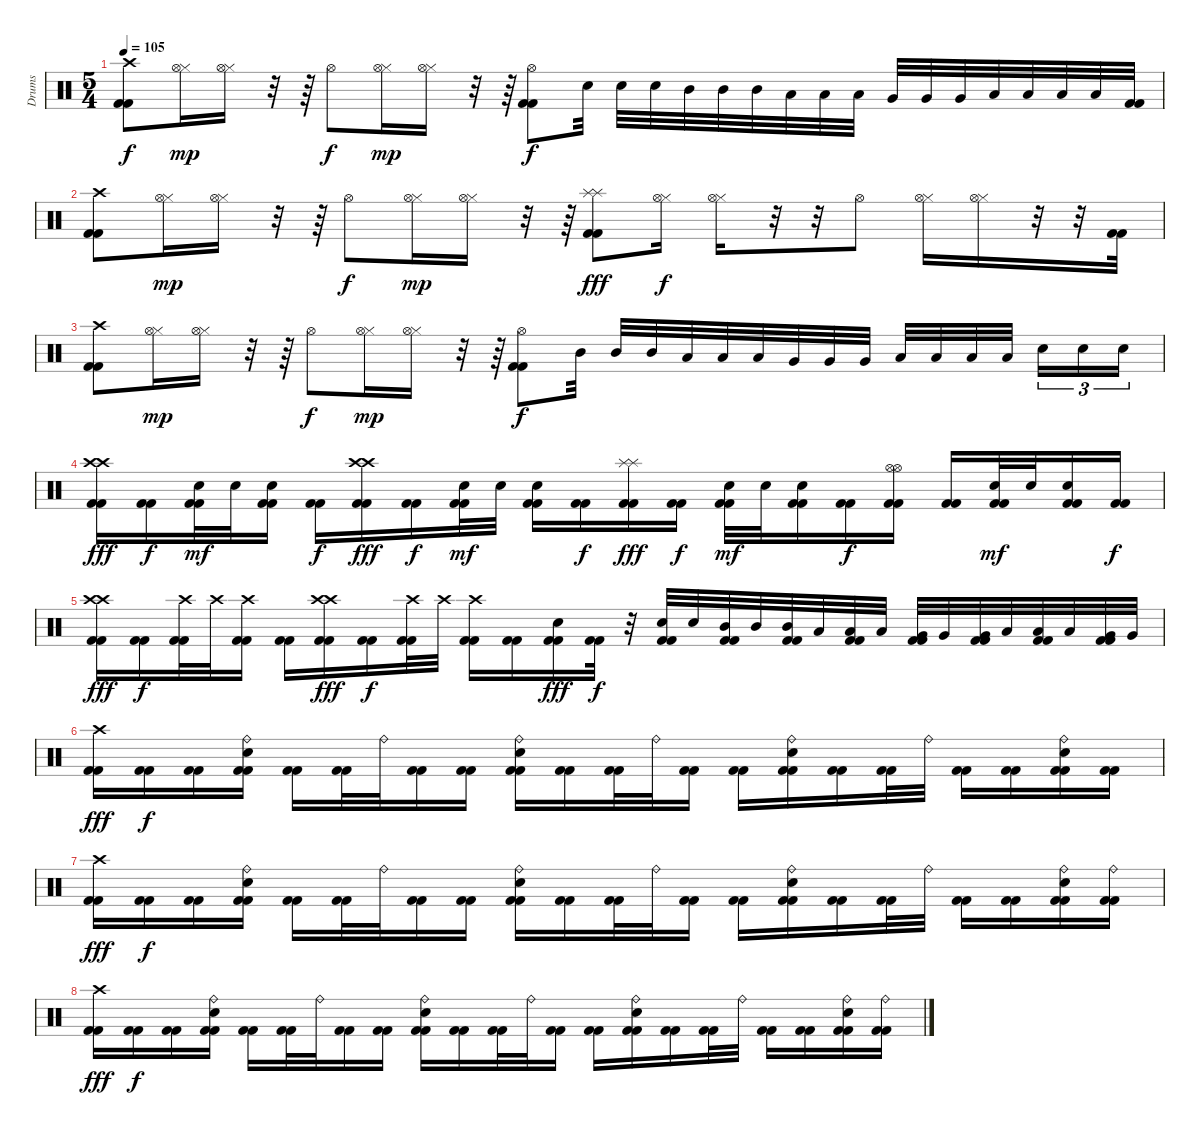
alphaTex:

\track ("Drums" "Drums") {instrument percussion}
\staff {score}
\articulation defaults
\ts (5 4)
\tempo 105
\clef neutral
\ks c
("Crash high (hit)" "Kick (hit) 2" "Kick (hit) 2").8{dy f} ("Hi-Hat (closed)" "Hi-Hat (open)").16{dy mp} ("Hi-Hat (closed)" "Hi-Hat (open)").16 r.32 r.64 "Hi-Hat (open)".8{dy f} ("Hi-Hat (closed)" "Hi-Hat (open)").16{dy mp} ("Hi-Hat (closed)" "Hi-Hat (open)").16 r.32 r.64 ("Hi-Hat (open)" "Kick (hit) 2" "Kick (hit) 2").8{dy f} "Electric Snare (hit)".32 "Electric Snare (hit)".32 "Electric Snare (hit)".32 "Mid Tom (hit)".32 "Mid Tom (hit)".32 "Mid Tom (hit)".32 "Low Tom (hit)".32 "Low Tom (hit)".32 "Low Tom (hit)".32 "Very Low Tom (hit)".32 "Very Low Tom (hit)".32 "Very Low Tom (hit)".32 "Low Floor Tom (hit)".32 "Low Floor Tom (hit)".32 "Low Floor Tom (hit)".32 "Low Tom (hit)".32 ("Kick (hit) 2" "Kick (hit) 2").32 |
("Crash high (hit)" "Kick (hit) 2" "Kick (hit) 2").8 ("Hi-Hat (closed)" "Hi-Hat (open)").16{dy mp} ("Hi-Hat (closed)" "Hi-Hat (open)").16 r.32 r.64 "Hi-Hat (open)".8{dy f} ("Hi-Hat (closed)" "Hi-Hat (open)").16{dy mp} ("Hi-Hat (closed)" "Hi-Hat (open)").16 r.32 r.64 ("Splash (hit)" "Splash (hit)" "Kick (hit) 2" "Kick (hit) 2").8{dy fff} ("Hi-Hat (closed)" "Hi-Hat (open)").16{dy f} ("Hi-Hat (closed)" "Hi-Hat (open)").16 r.32 r.32 "Hi-Hat (open)".8 ("Hi-Hat (closed)" "Hi-Hat (open)").16 ("Hi-Hat (closed)" "Hi-Hat (open)").16 r.32 r.32 ("Kick (hit) 2" "Kick (hit) 2").32 |
("Crash high (hit)" "Kick (hit) 2" "Kick (hit) 2").8 ("Hi-Hat (closed)" "Hi-Hat (open)").16{dy mp} ("Hi-Hat (closed)" "Hi-Hat (open)").16 r.32 r.64 "Hi-Hat (open)".8{dy f} ("Hi-Hat (closed)" "Hi-Hat (open)").16{dy mp} ("Hi-Hat (closed)" "Hi-Hat (open)").16 r.32 r.64 ("Hi-Hat (open)" "Kick (hit) 2" "Kick (hit) 2").8{dy f} "Mid Tom (hit)".32 "Mid Tom (hit)".32 "Mid Tom (hit)".32 "Low Tom (hit)".32 "Low Tom (hit)".32 "Low Tom (hit)".32 "Very Low Tom (hit)".32 "Very Low Tom (hit)".32 "Very Low Tom (hit)".32 "Low Floor Tom (hit)".32 "Low Floor Tom (hit)".32 "Low Floor Tom (hit)".32 "Low Tom (hit)".32 "Electric Snare (hit)".16{tu (3 2)} "Electric Snare (hit)".16{tu (3 2)} "Electric Snare (hit)".16{tu (3 2)} |
("Crash high (hit)" "Crash high (hit)" "Kick (hit) 2" "Kick (hit) 2").16{dy fff} ("Kick (hit) 2" "Kick (hit) 2").16{dy f} ("Electric Snare (hit)" "Kick (hit) 2" "Kick (hit) 2").32{dy mf} "Electric Snare (hit)".32 ("Electric Snare (hit)" "Kick (hit) 2" "Kick (hit) 2").16 ("Kick (hit) 2" "Kick (hit) 2").16{dy f} ("Crash high (hit)" "Crash high (hit)" "Kick (hit) 2" "Kick (hit) 2").16{dy fff} ("Kick (hit) 2" "Kick (hit) 2").16{dy f} ("Electric Snare (hit)" "Kick (hit) 2" "Kick (hit) 2").32{dy mf} "Electric Snare (hit)".32 ("Electric Snare (hit)" "Kick (hit) 2" "Kick (hit) 2").16 ("Kick (hit) 2" "Kick (hit) 2").16{dy f} ("Splash (hit)" "Splash (hit)" "Kick (hit) 2" "Kick (hit) 2").16{dy fff} ("Kick (hit) 2" "Kick (hit) 2").16{dy f} ("Electric Snare (hit)" "Kick (hit) 2" "Kick (hit) 2").32{dy mf} "Electric Snare (hit)".32 ("Electric Snare (hit)" "Kick (hit) 2" "Kick (hit) 2").16 ("Kick (hit) 2" "Kick (hit) 2").16{dy f} ("Hi-Hat (open)" "Hi-Hat (open)" "Kick (hit) 2" "Kick (hit) 2").16 ("Kick (hit) 2" "Kick (hit) 2").16 ("Electric Snare (hit)" "Kick (hit) 2" "Kick (hit) 2").32{dy mf} "Electric Snare (hit)".32 ("Electric Snare (hit)" "Kick (hit) 2" "Kick (hit) 2").16 ("Kick (hit) 2" "Kick (hit) 2").16{dy f} |
("Crash high (hit)" "Crash high (hit)" "Kick (hit) 2" "Kick (hit) 2").16{dy fff} ("Kick (hit) 2" "Kick (hit) 2").16{dy f} ("Crash high (hit)" "Kick (hit) 2" "Kick (hit) 2").32 "Crash high (hit)".32 ("Crash high (hit)" "Kick (hit) 2" "Kick (hit) 2").16 ("Kick (hit) 2" "Kick (hit) 2").16 ("Crash high (hit)" "Crash high (hit)" "Kick (hit) 2" "Kick (hit) 2").16{dy fff} ("Kick (hit) 2" "Kick (hit) 2").16{dy f} ("Crash high (hit)" "Kick (hit) 2" "Kick (hit) 2").32 "Crash high (hit)".32 ("Crash high (hit)" "Kick (hit) 2" "Kick (hit) 2").16 ("Kick (hit) 2" "Kick (hit) 2").16 ("Electric Snare (hit)" "Kick (hit) 2" "Kick (hit) 2").16{dy fff} ("Kick (hit) 2" "Kick (hit) 2").32{dy f} r.32 ("Electric Snare (hit)" "Kick (hit) 2" "Kick (hit) 2").32 "Electric Snare (hit)".32 ("Mid Tom (hit)" "Kick (hit) 2" "Kick (hit) 2").32 "Mid Tom (hit)".32 ("Mid Tom (hit)" "Kick (hit) 2" "Kick (hit) 2").32 "Low Tom (hit)".32 ("Low Tom (hit)" "Kick (hit) 2" "Kick (hit) 2").32 "Low Tom (hit)".32 ("Very Low Tom (hit)" "Kick (hit) 2" "Kick (hit) 2").32 "Very Low Tom (hit)".32 ("Very Low Tom (hit)" "Kick (hit) 2" "Kick (hit) 2").32 "Low Floor Tom (hit)".32 ("Low Floor Tom (hit)" "Kick (hit) 2" "Kick (hit) 2").32 "Low Floor Tom (hit)".32 ("Very Low Tom (hit)" "Kick (hit) 2" "Kick (hit) 2").32 "Very Low Tom (hit)".32 |
("Crash high (hit)" "Kick (hit) 2" "Kick (hit) 2").16{dy fff} ("Kick (hit) 2" "Kick (hit) 2").16{dy f} ("Kick (hit) 2" "Kick (hit) 2").16 ("Ride (bell)" "Electric Snare (hit)" "Kick (hit) 2" "Kick (hit) 2").16 ("Kick (hit) 2" "Kick (hit) 2").16 ("Kick (hit) 2" "Kick (hit) 2").32 "Ride (bell)".32 ("Kick (hit) 2" "Kick (hit) 2").16 ("Kick (hit) 2" "Kick (hit) 2").16 ("Ride (bell)" "Electric Snare (hit)" "Kick (hit) 2" "Kick (hit) 2").16 ("Kick (hit) 2" "Kick (hit) 2").16 ("Kick (hit) 2" "Kick (hit) 2").32 "Ride (bell)".32 ("Kick (hit) 2" "Kick (hit) 2").16 ("Kick (hit) 2" "Kick (hit) 2").16 ("Ride (bell)" "Electric Snare (hit)" "Kick (hit) 2" "Kick (hit) 2").16 ("Kick (hit) 2" "Kick (hit) 2").16 ("Kick (hit) 2" "Kick (hit) 2").32 "Ride (bell)".32 ("Kick (hit) 2" "Kick (hit) 2").16 ("Kick (hit) 2" "Kick (hit) 2").16 ("Ride (bell)" "Electric Snare (hit)" "Kick (hit) 2" "Kick (hit) 2").16 ("Kick (hit) 2" "Kick (hit) 2").16 |
("Crash high (hit)" "Kick (hit) 2" "Kick (hit) 2").16{dy fff} ("Kick (hit) 2" "Kick (hit) 2").16{dy f} ("Kick (hit) 2" "Kick (hit) 2").16 ("Ride (bell)" "Electric Snare (hit)" "Kick (hit) 2" "Kick (hit) 2").16 ("Kick (hit) 2" "Kick (hit) 2").16 ("Kick (hit) 2" "Kick (hit) 2").32 "Ride (bell)".32 ("Kick (hit) 2" "Kick (hit) 2").16 ("Kick (hit) 2" "Kick (hit) 2").16 ("Ride (bell)" "Electric Snare (hit)" "Kick (hit) 2" "Kick (hit) 2").16 ("Kick (hit) 2" "Kick (hit) 2").16 ("Kick (hit) 2" "Kick (hit) 2").32 "Ride (bell)".32 ("Kick (hit) 2" "Kick (hit) 2").16 ("Kick (hit) 2" "Kick (hit) 2").16 ("Ride (bell)" "Electric Snare (hit)" "Kick (hit) 2" "Kick (hit) 2").16 ("Kick (hit) 2" "Kick (hit) 2").16 ("Kick (hit) 2" "Kick (hit) 2").32 "Ride (bell)".32 ("Kick (hit) 2" "Kick (hit) 2").16 ("Kick (hit) 2" "Kick (hit) 2").16 ("Ride (bell)" "Electric Snare (hit)" "Kick (hit) 2" "Kick (hit) 2").16 ("Ride (bell)" "Kick (hit) 2" "Kick (hit) 2").16 |
("Crash high (hit)" "Kick (hit) 2" "Kick (hit) 2").16{dy fff} ("Kick (hit) 2" "Kick (hit) 2").16{dy f} ("Kick (hit) 2" "Kick (hit) 2").16 ("Ride (bell)" "Electric Snare (hit)" "Kick (hit) 2" "Kick (hit) 2").16 ("Kick (hit) 2" "Kick (hit) 2").16 ("Kick (hit) 2" "Kick (hit) 2").32 "Ride (bell)".32 ("Kick (hit) 2" "Kick (hit) 2").16 ("Kick (hit) 2" "Kick (hit) 2").16 ("Ride (bell)" "Electric Snare (hit)" "Kick (hit) 2" "Kick (hit) 2").16 ("Kick (hit) 2" "Kick (hit) 2").16 ("Kick (hit) 2" "Kick (hit) 2").32 "Ride (bell)".32 ("Kick (hit) 2" "Kick (hit) 2").16 ("Kick (hit) 2" "Kick (hit) 2").16 ("Ride (bell)" "Electric Snare (hit)" "Kick (hit) 2" "Kick (hit) 2").16 ("Kick (hit) 2" "Kick (hit) 2").16 ("Kick (hit) 2" "Kick (hit) 2").32 "Ride (bell)".32 ("Kick (hit) 2" "Kick (hit) 2").16 ("Kick (hit) 2" "Kick (hit) 2").16 ("Ride (bell)" "Electric Snare (hit)" "Kick (hit) 2" "Kick (hit) 2").16 ("Ride (bell)" "Kick (hit) 2" "Kick (hit) 2").16
